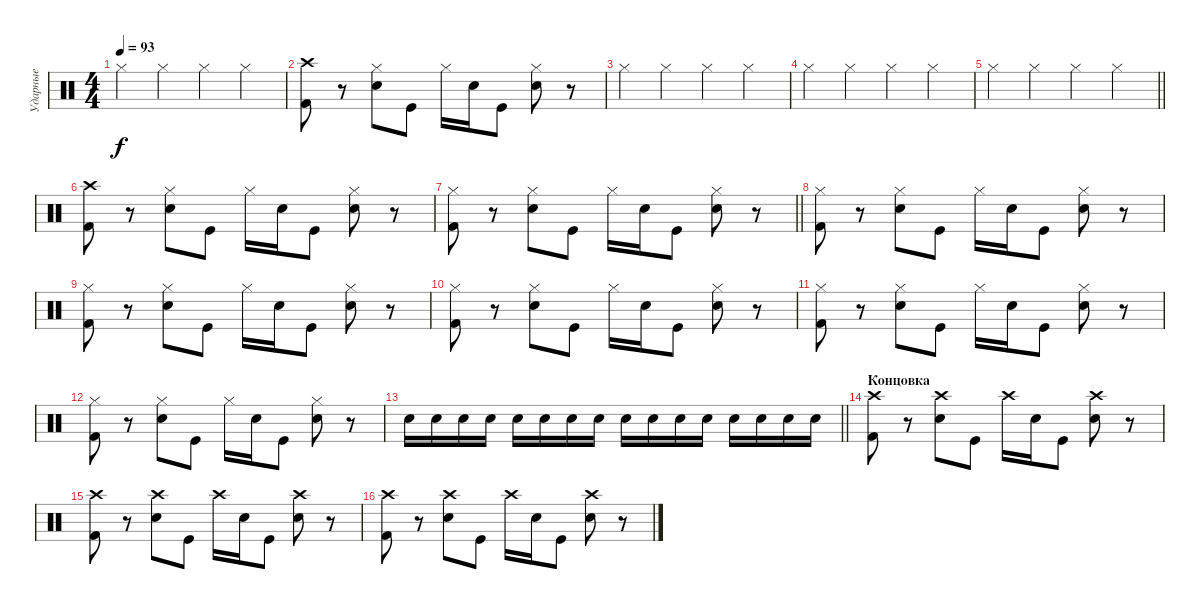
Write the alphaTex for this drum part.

\track ("Ударные" "Ударные") {instrument percussion}
\staff {score}
\articulation defaults
\ts (4 4)
\tempo 93
\clef neutral
\ks c "Hi-Hat (closed)".4{dy f} "Hi-Hat (closed)".4 "Hi-Hat (closed)".4 "Hi-Hat (closed)".4
|
("Crash high (hit)" "Kick (hit) 2").8 r.8 ("Hi-Hat (closed)" "Electric Snare (hit)").8 "Kick (hit)".8 "Hi-Hat (closed)".16 "Electric Snare (hit)".16 "Kick (hit)".8 ("Hi-Hat (closed)" "Electric Snare (hit)").8 r.8 |
"Hi-Hat (closed)".4 "Hi-Hat (closed)".4 "Hi-Hat (closed)".4 "Hi-Hat (closed)".4 |
"Hi-Hat (closed)".4 "Hi-Hat (closed)".4 "Hi-Hat (closed)".4 "Hi-Hat (closed)".4 |
\barLineRight lightlight "Hi-Hat (closed)".4 "Hi-Hat (closed)".4 "Hi-Hat (closed)".4 "Hi-Hat (closed)".4
|
("Crash high (hit)" "Kick (hit) 2").8 r.8 ("Hi-Hat (closed)" "Electric Snare (hit)").8 "Kick (hit)".8 "Hi-Hat (closed)".16 "Electric Snare (hit)".16 "Kick (hit)".8 ("Hi-Hat (closed)" "Electric Snare (hit)").8 r.8 |
\barLineRight lightlight
("Hi-Hat (closed)" "Kick (hit) 2").8 r.8 ("Hi-Hat (closed)" "Electric Snare (hit)").8 "Kick (hit)".8 "Hi-Hat (closed)".16 "Electric Snare (hit)".16 "Kick (hit)".8 ("Hi-Hat (closed)" "Electric Snare (hit)").8 r.8 |
("Hi-Hat (closed)" "Kick (hit) 2").8 r.8 ("Hi-Hat (closed)" "Electric Snare (hit)").8 "Kick (hit)".8 "Hi-Hat (closed)".16 "Electric Snare (hit)".16 "Kick (hit)".8 ("Hi-Hat (closed)" "Electric Snare (hit)").8 r.8 |
("Hi-Hat (closed)" "Kick (hit) 2").8 r.8 ("Hi-Hat (closed)" "Electric Snare (hit)").8 "Kick (hit)".8 "Hi-Hat (closed)".16 "Electric Snare (hit)".16 "Kick (hit)".8 ("Hi-Hat (closed)" "Electric Snare (hit)").8 r.8 |
("Hi-Hat (closed)" "Kick (hit) 2").8 r.8 ("Hi-Hat (closed)" "Electric Snare (hit)").8 "Kick (hit)".8 "Hi-Hat (closed)".16 "Electric Snare (hit)".16 "Kick (hit)".8 ("Hi-Hat (closed)" "Electric Snare (hit)").8 r.8 |
("Hi-Hat (closed)" "Kick (hit) 2").8 r.8 ("Hi-Hat (closed)" "Electric Snare (hit)").8 "Kick (hit)".8 "Hi-Hat (closed)".16 "Electric Snare (hit)".16 "Kick (hit)".8 ("Hi-Hat (closed)" "Electric Snare (hit)").8 r.8 |
("Hi-Hat (closed)" "Kick (hit) 2").8 r.8 ("Hi-Hat (closed)" "Electric Snare (hit)").8 "Kick (hit)".8 "Hi-Hat (closed)".16 "Electric Snare (hit)".16 "Kick (hit)".8 ("Hi-Hat (closed)" "Electric Snare (hit)").8 r.8 |
\barLineRight lightlight "Electric Snare (hit)".16 "Electric Snare (hit)".16 "Electric Snare (hit)".16 "Electric Snare (hit)".16 "Electric Snare (hit)".16 "Electric Snare (hit)".16 "Electric Snare (hit)".16 "Electric Snare (hit)".16 "Electric Snare (hit)".16 "Electric Snare (hit)".16 "Electric Snare (hit)".16 "Electric Snare (hit)".16 "Electric Snare (hit)".16 "Electric Snare (hit)".16 "Electric Snare (hit)".16 "Electric Snare (hit)".16
|
\section ("" "Концовка")
("Crash high (hit)" "Kick (hit) 2").8 r.8 ("Crash high (hit)" "Electric Snare (hit)").8 "Kick (hit)".8 "Crash high (hit)".16 "Electric Snare (hit)".16 "Kick (hit)".8 ("Crash high (hit)" "Electric Snare (hit)").8 r.8 |
("Crash high (hit)" "Kick (hit) 2").8 r.8 ("Crash high (hit)" "Electric Snare (hit)").8 "Kick (hit)".8 "Crash high (hit)".16 "Electric Snare (hit)".16 "Kick (hit)".8 ("Crash high (hit)" "Electric Snare (hit)").8 r.8 |
("Crash high (hit)" "Kick (hit) 2").8 r.8 ("Crash high (hit)" "Electric Snare (hit)").8 "Kick (hit)".8 "Crash high (hit)".16 "Electric Snare (hit)".16 "Kick (hit)".8 ("Crash high (hit)" "Electric Snare (hit)").8 r.8
